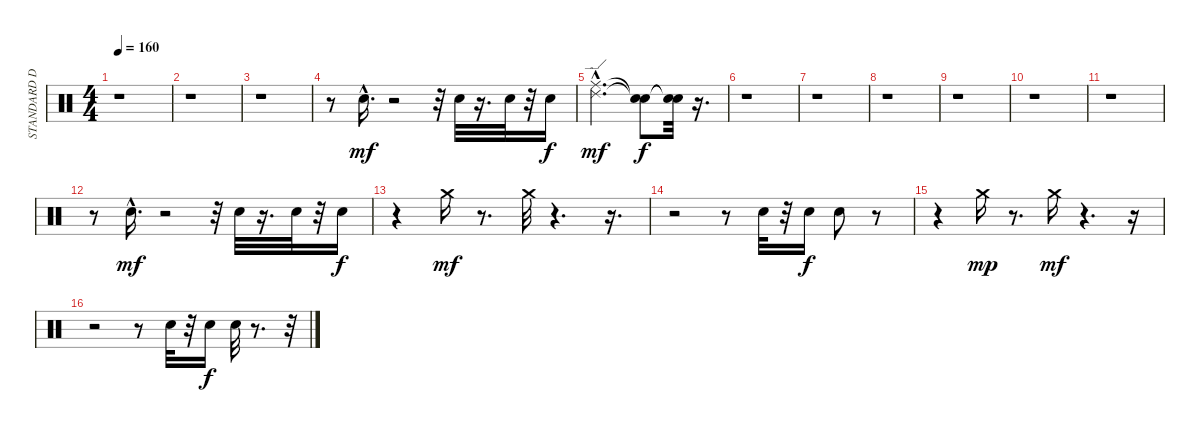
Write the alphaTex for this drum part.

\track ("STANDARD DRUMS" "STANDARD D") {instrument percussion}
\staff {score}
\articulation defaults
\ts (4 4)
\tempo 160
\clef neutral
\ks c
r.1{dy f} |
r.1 |
r.1 |
r.8 "Electric Snare (hit)"{hac}.16{d dy mf} r.2 r.32 "Electric Snare (hit)".32 r.16{d} "Electric Snare (hit)".32 r.32 "Electric Snare (hit)".16{dy f} |
("Ride (edge) 2"{hac} "Ride (middle)"{hac}).2{d dy mf} ("Snare (hit)"{t} "Snare (hit)"{t}).8{dy f} ("Snare (hit)"{t} "Snare (hit)"{t}).32 r.16{d} |
r.1 |
r.1 |
r.1 |
r.1 |
r.1 |
r.1 |
r.8 "Electric Snare (hit)"{hac}.16{d dy mf} r.2 r.32 "Electric Snare (hit)".32 r.16{d} "Electric Snare (hit)".32 r.32 "Electric Snare (hit)".16{dy f} |
r.4 "Crash medium (hit)".16{dy mf} r.8{d} "Crash medium (hit)".32 r.4{d} r.16{d} |
r.2 r.8 "Electric Snare (hit)".32 r.32 "Electric Snare (hit)".16{dy f} "Electric Snare (hit)".8 r.8 |
r.4 "Crash medium (hit)".16{dy mp} r.8{d} "Crash medium (hit)".16{dy mf} r.4{d} r.16 |
r.2 r.8 "Electric Snare (hit)".32 r.32 "Electric Snare (hit)".16{dy f} "Electric Snare (hit)".32 r.8{d} r.32
